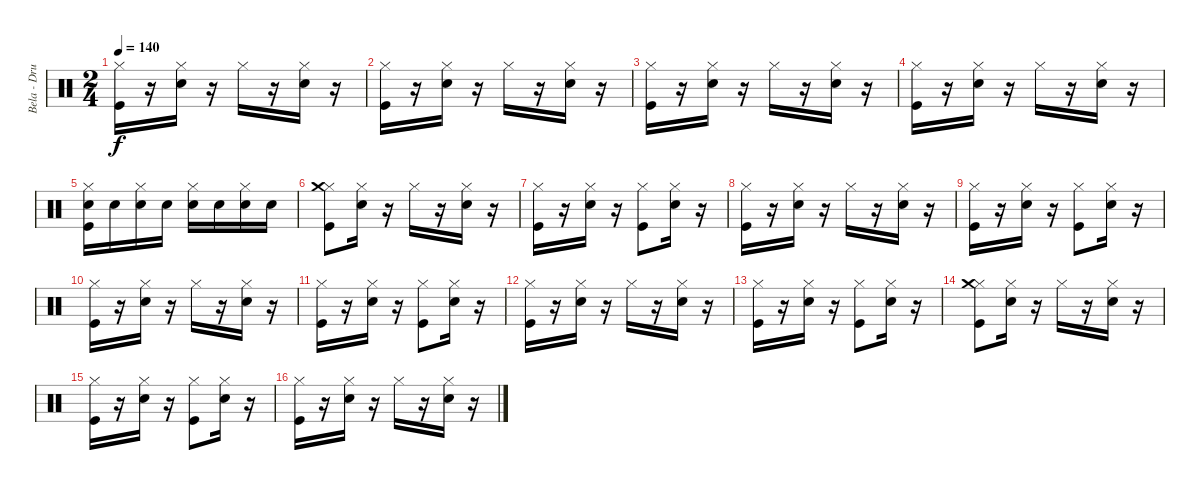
\track ("Bela - Drums" "Bela - Dru") {instrument percussion}
\staff {score}
\articulation defaults
\ts (2 4)
\tempo 140
\clef neutral
\ks c
("Kick (hit)" "Hi-Hat (closed)").16{dy f} r.16 ("Electric Snare (hit)" "Hi-Hat (closed)").16 r.16 "Hi-Hat (closed)".16 r.16 ("Electric Snare (hit)" "Hi-Hat (closed)").16 r.16 |
("Kick (hit)" "Hi-Hat (closed)").16 r.16 ("Electric Snare (hit)" "Hi-Hat (closed)").16 r.16 "Hi-Hat (closed)".16 r.16 ("Electric Snare (hit)" "Hi-Hat (closed)").16 r.16 |
("Kick (hit)" "Hi-Hat (closed)").16 r.16 ("Electric Snare (hit)" "Hi-Hat (closed)").16 r.16 "Hi-Hat (closed)".16 r.16 ("Electric Snare (hit)" "Hi-Hat (closed)").16 r.16 |
("Kick (hit)" "Hi-Hat (closed)").16 r.16 ("Electric Snare (hit)" "Hi-Hat (closed)").16 r.16 "Hi-Hat (closed)".16 r.16 ("Electric Snare (hit)" "Hi-Hat (closed)").16 r.16 |
("Kick (hit)" "Hi-Hat (closed)" "Electric Snare (hit)").16 "Electric Snare (hit)".16 ("Electric Snare (hit)" "Hi-Hat (closed)").16 "Electric Snare (hit)".16 ("Hi-Hat (closed)" "Electric Snare (hit)").16 "Electric Snare (hit)".16 ("Electric Snare (hit)" "Hi-Hat (closed)").16 "Electric Snare (hit)".16 |
("Kick (hit)" "Hi-Hat (closed)" "Crash medium (hit)").8 ("Electric Snare (hit)" "Hi-Hat (closed)").16 r.16 "Hi-Hat (closed)".16 r.16 ("Electric Snare (hit)" "Hi-Hat (closed)").16 r.16 |
("Kick (hit)" "Hi-Hat (closed)").16 r.16 ("Electric Snare (hit)" "Hi-Hat (closed)").16 r.16 ("Hi-Hat (closed)" "Kick (hit)").8 ("Electric Snare (hit)" "Hi-Hat (closed)").16 r.16 |
("Kick (hit)" "Hi-Hat (closed)").16 r.16 ("Electric Snare (hit)" "Hi-Hat (closed)").16 r.16 "Hi-Hat (closed)".16 r.16 ("Electric Snare (hit)" "Hi-Hat (closed)").16 r.16 |
("Kick (hit)" "Hi-Hat (closed)").16 r.16 ("Electric Snare (hit)" "Hi-Hat (closed)").16 r.16 ("Hi-Hat (closed)" "Kick (hit)").8 ("Electric Snare (hit)" "Hi-Hat (closed)").16 r.16 |
("Kick (hit)" "Hi-Hat (closed)").16 r.16 ("Electric Snare (hit)" "Hi-Hat (closed)").16 r.16 "Hi-Hat (closed)".16 r.16 ("Electric Snare (hit)" "Hi-Hat (closed)").16 r.16 |
("Kick (hit)" "Hi-Hat (closed)").16 r.16 ("Electric Snare (hit)" "Hi-Hat (closed)").16 r.16 ("Hi-Hat (closed)" "Kick (hit)").8 ("Electric Snare (hit)" "Hi-Hat (closed)").16 r.16 |
("Kick (hit)" "Hi-Hat (closed)").16 r.16 ("Electric Snare (hit)" "Hi-Hat (closed)").16 r.16 "Hi-Hat (closed)".16 r.16 ("Electric Snare (hit)" "Hi-Hat (closed)").16 r.16 |
("Kick (hit)" "Hi-Hat (closed)").16 r.16 ("Electric Snare (hit)" "Hi-Hat (closed)").16 r.16 ("Hi-Hat (closed)" "Kick (hit)").8 ("Electric Snare (hit)" "Hi-Hat (closed)").16 r.16 |
("Kick (hit)" "Hi-Hat (closed)" "Crash medium (hit)").8 ("Electric Snare (hit)" "Hi-Hat (closed)").16 r.16 "Hi-Hat (closed)".16 r.16 ("Electric Snare (hit)" "Hi-Hat (closed)").16 r.16 |
("Kick (hit)" "Hi-Hat (closed)").16 r.16 ("Electric Snare (hit)" "Hi-Hat (closed)").16 r.16 ("Hi-Hat (closed)" "Kick (hit)").8 ("Electric Snare (hit)" "Hi-Hat (closed)").16 r.16 |
("Kick (hit)" "Hi-Hat (closed)").16 r.16 ("Electric Snare (hit)" "Hi-Hat (closed)").16 r.16 "Hi-Hat (closed)".16 r.16 ("Electric Snare (hit)" "Hi-Hat (closed)").16 r.16
